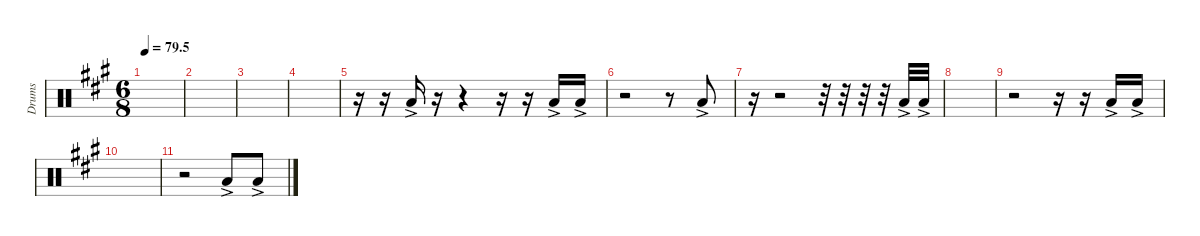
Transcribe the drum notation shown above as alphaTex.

\defaultSystemsLayout 4
\hideDynamics
\bracketExtendMode nobrackets
\otherSystemsTrackNameOrientation horizontal
\track ("Tom 03" "Drums") {instrument percussion}
\staff {score}
\articulation defaults
\ts (6 8)
\tempo
79.5
\accidentals auto
\clef neutral
\ottava regular
\simile none
\scale
0.333333
\ks a
|
\scale
0.333333 |
\scale
0.333333 |
\scale
0.333333 |
\scale
0.333333 r.16 r.16 "Low Tom (hit)"{ac acc forcenatural}.16 r.16 r.4 r.16 r.16 "Low Tom (hit)"{ac acc forcenatural}.16 "Low Tom (hit)"{ac acc forcenatural}.16 |
\scale
0.333333 r.2 r.8 "Low Tom (hit)"{ac acc forcenatural}.8 |
\scale
0.333333 r.16 r.2 r.32 r.32 r.32 r.32 "Low Tom (hit)"{ac acc forcenatural}.32 "Low Tom (hit)"{ac acc forcenatural}.32 |
\scale
0.333333 |
\scale
0.333333 r.2 r.16 r.16 "Low Tom (hit)"{ac acc forcenatural}.16 "Low Tom (hit)"{ac acc forcenatural}.16 |
\scale
0.333333 |
\scale
0.333333 r.2 "Low Tom (hit)"{ac acc forcenatural}.8 "Low Tom (hit)"{ac acc forcenatural}.8 |
\scale
0.333333 |
\scale
0.333333 |
\scale
0.333333 |
\scale
0.333333 |
\scale
0.333333
